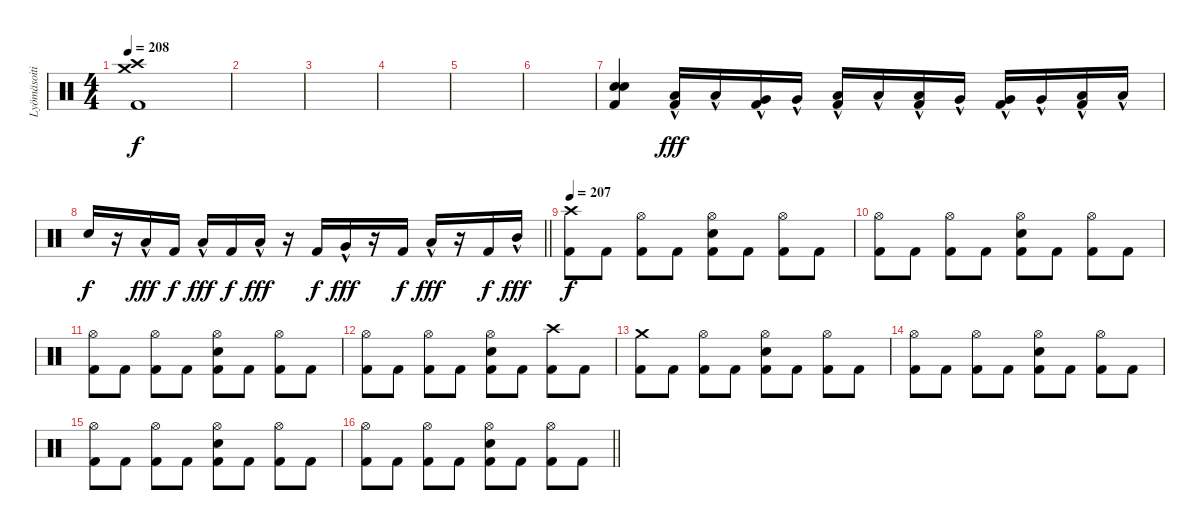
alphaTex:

\track ("Lyömäsoitin" "Lyömäsoiti") {instrument percussion}
\staff {score}
\articulation defaults
\ts (4 4)
\tempo 208
\clef neutral
\ks c
("Crash high (hit)" "Crash medium (hit)" "Kick (hit) 2").1{dy f} |
|
|
|
|
|
("Electric Snare (hit)" "Snare (hit) 2" "Kick (hit) 2").4 ("Low Floor Tom (hit)"{hac} "Kick (hit) 2").16{dy fff} "Low Floor Tom (hit)"{hac}.16 ("Very Low Tom (hit)"{hac} "Kick (hit) 2").16 "Very Low Tom (hit)"{hac}.16 ("Low Tom (hit)"{hac} "Kick (hit) 2").16 "Low Tom (hit)"{hac}.16 ("Low Tom (hit)"{hac} "Kick (hit) 2").16 "Very Low Tom (hit)"{hac}.16 ("Very Low Tom (hit)"{hac} "Kick (hit) 2").16 "Very Low Tom (hit)"{hac}.16 ("Low Floor Tom (hit)"{hac} "Kick (hit) 2").16 "Low Floor Tom (hit)"{hac}.16 |
\barLineRight lightlight "Snare (hit) 2".16{dy f}
r.16 "Low Floor Tom (hit)"{hac}.16{dy fff} "Kick (hit) 2".16{dy f} "Low Tom (hit)"{hac}.16{dy fff} "Kick (hit) 2".16{dy f} "Low Floor Tom (hit)"{hac}.16{dy fff} r.16 "Kick (hit) 2".16{dy f} "Very Low Tom (hit)"{hac}.16{dy fff} r.16 "Kick (hit) 2".16{dy f} "Low Tom (hit)"{hac}.16{dy fff} r.16 "Kick (hit) 2".16{dy f} "Mid Tom (hit)"{hac}.16{dy fff} |
\section ("" "")
\tempo 207
("Crash high (hit)" "Kick (hit) 2").8{dy f} "Kick (hit) 2".8 ("Hi-Hat (open)" "Kick (hit) 2").8 "Kick (hit) 2".8 ("Hi-Hat (open)" "Snare (hit) 2" "Kick (hit) 2").8 "Kick (hit) 2".8 ("Hi-Hat (open)" "Kick (hit) 2").8 "Kick (hit) 2".8 |
("Hi-Hat (open)" "Kick (hit) 2").8 "Kick (hit) 2".8 ("Hi-Hat (open)" "Kick (hit) 2").8 "Kick (hit) 2".8 ("Hi-Hat (open)" "Snare (hit) 2" "Kick (hit) 2").8 "Kick (hit) 2".8 ("Hi-Hat (open)" "Kick (hit) 2").8 "Kick (hit) 2".8 |
("Hi-Hat (open)" "Kick (hit) 2").8 "Kick (hit) 2".8 ("Hi-Hat (open)" "Kick (hit) 2").8 "Kick (hit) 2".8 ("Hi-Hat (open)" "Snare (hit) 2" "Kick (hit) 2").8 "Kick (hit) 2".8 ("Hi-Hat (open)" "Kick (hit) 2").8 "Kick (hit) 2".8 |
("Hi-Hat (open)" "Kick (hit) 2").8 "Kick (hit) 2".8 ("Hi-Hat (open)" "Kick (hit) 2").8 "Kick (hit) 2".8 ("Hi-Hat (open)" "Snare (hit) 2" "Kick (hit) 2").8 "Kick (hit) 2".8 ("Crash high (hit)" "Kick (hit) 2").8 "Kick (hit) 2".8 |
("Crash medium (hit)" "Kick (hit) 2").8 "Kick (hit) 2".8 ("Hi-Hat (open)" "Kick (hit) 2").8 "Kick (hit) 2".8 ("Hi-Hat (open)" "Snare (hit) 2" "Kick (hit) 2").8 "Kick (hit) 2".8 ("Hi-Hat (open)" "Kick (hit) 2").8 "Kick (hit) 2".8 |
("Hi-Hat (open)" "Kick (hit) 2").8 "Kick (hit) 2".8 ("Hi-Hat (open)" "Kick (hit) 2").8 "Kick (hit) 2".8 ("Hi-Hat (open)" "Snare (hit) 2" "Kick (hit) 2").8 "Kick (hit) 2".8 ("Hi-Hat (open)" "Kick (hit) 2").8 "Kick (hit) 2".8 |
("Hi-Hat (open)" "Kick (hit) 2").8 "Kick (hit) 2".8 ("Hi-Hat (open)" "Kick (hit) 2").8 "Kick (hit) 2".8 ("Hi-Hat (open)" "Snare (hit) 2" "Kick (hit) 2").8 "Kick (hit) 2".8 ("Hi-Hat (open)" "Kick (hit) 2").8 "Kick (hit) 2".8 |
\barLineRight lightlight
("Hi-Hat (open)" "Kick (hit) 2").8 "Kick (hit) 2".8 ("Hi-Hat (open)" "Kick (hit) 2").8 "Kick (hit) 2".8 ("Hi-Hat (open)" "Snare (hit) 2" "Kick (hit) 2").8 "Kick (hit) 2".8 ("Hi-Hat (open)" "Kick (hit) 2").8 "Kick (hit) 2".8
